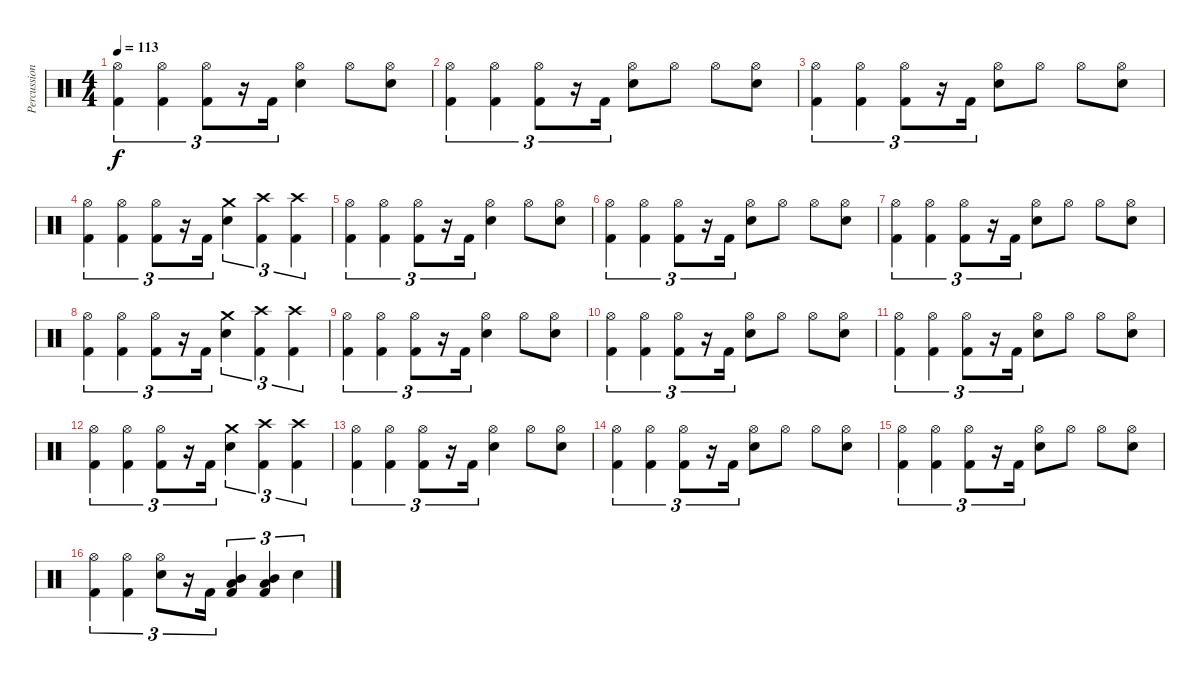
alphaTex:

\track ("Percussion" "Percussion") {instrument percussion}
\staff {score}
\articulation defaults
\ts (4 4)
\tempo 113
\clef neutral
\ks c
("Kick (hit) 2" "Hi-Hat (open)").4{tu (3 2) dy f} ("Kick (hit) 2" "Hi-Hat (open)").4{tu (3 2)} ("Kick (hit) 2" "Hi-Hat (open)").8{tu (3 2)} r.16{tu (3 2)} "Kick (hit) 2".16{tu (3 2)} ("Electric Snare (hit)" "Hi-Hat (open)").4 "Hi-Hat (open)".8 ("Electric Snare (hit)" "Hi-Hat (open)").8 |
("Kick (hit) 2" "Hi-Hat (open)").4{tu (3 2)} ("Kick (hit) 2" "Hi-Hat (open)").4{tu (3 2)} ("Kick (hit) 2" "Hi-Hat (open)").8{tu (3 2)} r.16{tu (3 2)} "Kick (hit) 2".16{tu (3 2)} ("Electric Snare (hit)" "Hi-Hat (open)").8 "Hi-Hat (open)".8 "Hi-Hat (open)".8 ("Electric Snare (hit)" "Hi-Hat (open)").8 |
("Kick (hit) 2" "Hi-Hat (open)").4{tu (3 2)} ("Kick (hit) 2" "Hi-Hat (open)").4{tu (3 2)} ("Kick (hit) 2" "Hi-Hat (open)").8{tu (3 2)} r.16{tu (3 2)} "Kick (hit) 2".16{tu (3 2)} ("Electric Snare (hit)" "Hi-Hat (open)").8 "Hi-Hat (open)".8 "Hi-Hat (open)".8 ("Electric Snare (hit)" "Hi-Hat (open)").8 |
("Kick (hit) 2" "Hi-Hat (open)").4{tu (3 2)} ("Kick (hit) 2" "Hi-Hat (open)").4{tu (3 2)} ("Kick (hit) 2" "Hi-Hat (open)").8{tu (3 2)} r.16{tu (3 2)} "Kick (hit) 2".16{tu (3 2)} ("Electric Snare (hit)" "Crash medium (hit)").4{tu (3 2)} ("Kick (hit) 2" "Crash high (hit)").4{tu (3 2)} ("Kick (hit) 2" "Crash high (hit)").4{tu (3 2)} |
("Kick (hit) 2" "Hi-Hat (open)").4{tu (3 2)} ("Kick (hit) 2" "Hi-Hat (open)").4{tu (3 2)} ("Kick (hit) 2" "Hi-Hat (open)").8{tu (3 2)} r.16{tu (3 2)} "Kick (hit) 2".16{tu (3 2)} ("Electric Snare (hit)" "Hi-Hat (open)").4 "Hi-Hat (open)".8 ("Electric Snare (hit)" "Hi-Hat (open)").8 |
("Kick (hit) 2" "Hi-Hat (open)").4{tu (3 2)} ("Kick (hit) 2" "Hi-Hat (open)").4{tu (3 2)} ("Kick (hit) 2" "Hi-Hat (open)").8{tu (3 2)} r.16{tu (3 2)} "Kick (hit) 2".16{tu (3 2)} ("Electric Snare (hit)" "Hi-Hat (open)").8 "Hi-Hat (open)".8 "Hi-Hat (open)".8 ("Electric Snare (hit)" "Hi-Hat (open)").8 |
("Kick (hit) 2" "Hi-Hat (open)").4{tu (3 2)} ("Kick (hit) 2" "Hi-Hat (open)").4{tu (3 2)} ("Kick (hit) 2" "Hi-Hat (open)").8{tu (3 2)} r.16{tu (3 2)} "Kick (hit) 2".16{tu (3 2)} ("Electric Snare (hit)" "Hi-Hat (open)").8 "Hi-Hat (open)".8 "Hi-Hat (open)".8 ("Electric Snare (hit)" "Hi-Hat (open)").8 |
("Kick (hit) 2" "Hi-Hat (open)").4{tu (3 2)} ("Kick (hit) 2" "Hi-Hat (open)").4{tu (3 2)} ("Kick (hit) 2" "Hi-Hat (open)").8{tu (3 2)} r.16{tu (3 2)} "Kick (hit) 2".16{tu (3 2)} ("Electric Snare (hit)" "Crash medium (hit)").4{tu (3 2)} ("Kick (hit) 2" "Crash high (hit)").4{tu (3 2)} ("Kick (hit) 2" "Crash high (hit)").4{tu (3 2)} |
("Kick (hit) 2" "Hi-Hat (open)").4{tu (3 2)} ("Kick (hit) 2" "Hi-Hat (open)").4{tu (3 2)} ("Kick (hit) 2" "Hi-Hat (open)").8{tu (3 2)} r.16{tu (3 2)} "Kick (hit) 2".16{tu (3 2)} ("Electric Snare (hit)" "Hi-Hat (open)").4 "Hi-Hat (open)".8 ("Electric Snare (hit)" "Hi-Hat (open)").8 |
("Kick (hit) 2" "Hi-Hat (open)").4{tu (3 2)} ("Kick (hit) 2" "Hi-Hat (open)").4{tu (3 2)} ("Kick (hit) 2" "Hi-Hat (open)").8{tu (3 2)} r.16{tu (3 2)} "Kick (hit) 2".16{tu (3 2)} ("Electric Snare (hit)" "Hi-Hat (open)").8 "Hi-Hat (open)".8 "Hi-Hat (open)".8 ("Electric Snare (hit)" "Hi-Hat (open)").8 |
("Kick (hit) 2" "Hi-Hat (open)").4{tu (3 2)} ("Kick (hit) 2" "Hi-Hat (open)").4{tu (3 2)} ("Kick (hit) 2" "Hi-Hat (open)").8{tu (3 2)} r.16{tu (3 2)} "Kick (hit) 2".16{tu (3 2)} ("Electric Snare (hit)" "Hi-Hat (open)").8 "Hi-Hat (open)".8 "Hi-Hat (open)".8 ("Electric Snare (hit)" "Hi-Hat (open)").8 |
("Kick (hit) 2" "Hi-Hat (open)").4{tu (3 2)} ("Kick (hit) 2" "Hi-Hat (open)").4{tu (3 2)} ("Kick (hit) 2" "Hi-Hat (open)").8{tu (3 2)} r.16{tu (3 2)} "Kick (hit) 2".16{tu (3 2)} ("Electric Snare (hit)" "Crash medium (hit)").4{tu (3 2)} ("Kick (hit) 2" "Crash high (hit)").4{tu (3 2)} ("Kick (hit) 2" "Crash high (hit)").4{tu (3 2)} |
("Kick (hit) 2" "Hi-Hat (open)").4{tu (3 2)} ("Kick (hit) 2" "Hi-Hat (open)").4{tu (3 2)} ("Kick (hit) 2" "Hi-Hat (open)").8{tu (3 2)} r.16{tu (3 2)} "Kick (hit) 2".16{tu (3 2)} ("Electric Snare (hit)" "Hi-Hat (open)").4 "Hi-Hat (open)".8 ("Electric Snare (hit)" "Hi-Hat (open)").8 |
("Kick (hit) 2" "Hi-Hat (open)").4{tu (3 2)} ("Kick (hit) 2" "Hi-Hat (open)").4{tu (3 2)} ("Kick (hit) 2" "Hi-Hat (open)").8{tu (3 2)} r.16{tu (3 2)} "Kick (hit) 2".16{tu (3 2)} ("Electric Snare (hit)" "Hi-Hat (open)").8 "Hi-Hat (open)".8 "Hi-Hat (open)".8 ("Electric Snare (hit)" "Hi-Hat (open)").8 |
("Kick (hit) 2" "Hi-Hat (open)").4{tu (3 2)} ("Kick (hit) 2" "Hi-Hat (open)").4{tu (3 2)} ("Kick (hit) 2" "Hi-Hat (open)").8{tu (3 2)} r.16{tu (3 2)} "Kick (hit) 2".16{tu (3 2)} ("Electric Snare (hit)" "Hi-Hat (open)").8 "Hi-Hat (open)".8 "Hi-Hat (open)".8 ("Electric Snare (hit)" "Hi-Hat (open)").8 |
("Kick (hit) 2" "Hi-Hat (open)").4{tu (3 2)} ("Kick (hit) 2" "Hi-Hat (open)").4{tu (3 2)} ("Electric Snare (hit)" "Hi-Hat (open)").8{tu (3 2)} r.16{tu (3 2)} "Kick (hit) 2".16{tu (3 2)} ("Kick (hit) 2" "Low Tom (hit)" "Mid Tom (hit)").4{tu (3 2)} ("Kick (hit) 2" "Low Tom (hit)" "Mid Tom (hit)").4{tu (3 2)} "Electric Snare (hit)".4{tu (3 2)}
